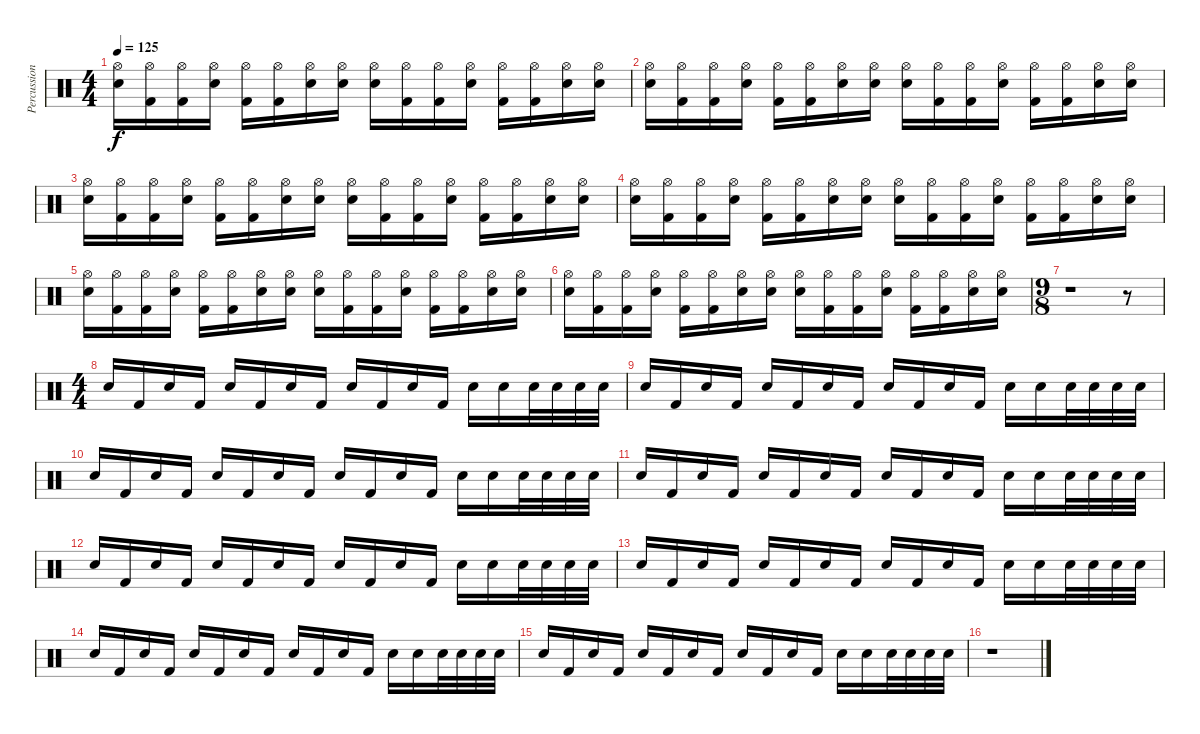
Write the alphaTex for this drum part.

\track ("Percussion" "Percussion") {instrument percussion}
\staff {score}
\articulation defaults
\ts (4 4)
\tempo 125
\clef neutral
\ks c
("Hi-Hat (open)" "Snare (hit) 2").16{dy f} ("Hi-Hat (open)" "Kick (hit) 2").16 ("Hi-Hat (open)" "Kick (hit) 2").16 ("Hi-Hat (open)" "Snare (hit) 2").16 ("Hi-Hat (open)" "Kick (hit) 2").16 ("Hi-Hat (open)" "Kick (hit) 2").16 ("Hi-Hat (open)" "Snare (hit) 2").16 ("Hi-Hat (open)" "Snare (hit) 2").16 ("Hi-Hat (open)" "Snare (hit) 2").16 ("Hi-Hat (open)" "Kick (hit) 2").16 ("Hi-Hat (open)" "Kick (hit) 2").16 ("Hi-Hat (open)" "Snare (hit) 2").16 ("Hi-Hat (open)" "Kick (hit) 2").16 ("Hi-Hat (open)" "Kick (hit) 2").16 ("Hi-Hat (open)" "Snare (hit) 2").16 ("Hi-Hat (open)" "Snare (hit) 2").16 |
("Hi-Hat (open)" "Snare (hit) 2").16 ("Hi-Hat (open)" "Kick (hit) 2").16 ("Hi-Hat (open)" "Kick (hit) 2").16 ("Hi-Hat (open)" "Snare (hit) 2").16 ("Hi-Hat (open)" "Kick (hit) 2").16 ("Hi-Hat (open)" "Kick (hit) 2").16 ("Hi-Hat (open)" "Snare (hit) 2").16 ("Hi-Hat (open)" "Snare (hit) 2").16 ("Hi-Hat (open)" "Snare (hit) 2").16 ("Hi-Hat (open)" "Kick (hit) 2").16 ("Hi-Hat (open)" "Kick (hit) 2").16 ("Hi-Hat (open)" "Snare (hit) 2").16 ("Hi-Hat (open)" "Kick (hit) 2").16 ("Hi-Hat (open)" "Kick (hit) 2").16 ("Hi-Hat (open)" "Snare (hit) 2").16 ("Hi-Hat (open)" "Snare (hit) 2").16 |
("Hi-Hat (open)" "Snare (hit) 2").16 ("Hi-Hat (open)" "Kick (hit) 2").16 ("Hi-Hat (open)" "Kick (hit) 2").16 ("Hi-Hat (open)" "Snare (hit) 2").16 ("Hi-Hat (open)" "Kick (hit) 2").16 ("Hi-Hat (open)" "Kick (hit) 2").16 ("Hi-Hat (open)" "Snare (hit) 2").16 ("Hi-Hat (open)" "Snare (hit) 2").16 ("Hi-Hat (open)" "Snare (hit) 2").16 ("Hi-Hat (open)" "Kick (hit) 2").16 ("Hi-Hat (open)" "Kick (hit) 2").16 ("Hi-Hat (open)" "Snare (hit) 2").16 ("Hi-Hat (open)" "Kick (hit) 2").16 ("Hi-Hat (open)" "Kick (hit) 2").16 ("Hi-Hat (open)" "Snare (hit) 2").16 ("Hi-Hat (open)" "Snare (hit) 2").16 |
("Hi-Hat (open)" "Snare (hit) 2").16 ("Hi-Hat (open)" "Kick (hit) 2").16 ("Hi-Hat (open)" "Kick (hit) 2").16 ("Hi-Hat (open)" "Snare (hit) 2").16 ("Hi-Hat (open)" "Kick (hit) 2").16 ("Hi-Hat (open)" "Kick (hit) 2").16 ("Hi-Hat (open)" "Snare (hit) 2").16 ("Hi-Hat (open)" "Snare (hit) 2").16 ("Hi-Hat (open)" "Snare (hit) 2").16 ("Hi-Hat (open)" "Kick (hit) 2").16 ("Hi-Hat (open)" "Kick (hit) 2").16 ("Hi-Hat (open)" "Snare (hit) 2").16 ("Hi-Hat (open)" "Kick (hit) 2").16 ("Hi-Hat (open)" "Kick (hit) 2").16 ("Hi-Hat (open)" "Snare (hit) 2").16 ("Hi-Hat (open)" "Snare (hit) 2").16 |
("Hi-Hat (open)" "Snare (hit) 2").16 ("Hi-Hat (open)" "Kick (hit) 2").16 ("Hi-Hat (open)" "Kick (hit) 2").16 ("Hi-Hat (open)" "Snare (hit) 2").16 ("Hi-Hat (open)" "Kick (hit) 2").16 ("Hi-Hat (open)" "Kick (hit) 2").16 ("Hi-Hat (open)" "Snare (hit) 2").16 ("Hi-Hat (open)" "Snare (hit) 2").16 ("Hi-Hat (open)" "Snare (hit) 2").16 ("Hi-Hat (open)" "Kick (hit) 2").16 ("Hi-Hat (open)" "Kick (hit) 2").16 ("Hi-Hat (open)" "Snare (hit) 2").16 ("Hi-Hat (open)" "Kick (hit) 2").16 ("Hi-Hat (open)" "Kick (hit) 2").16 ("Hi-Hat (open)" "Snare (hit) 2").16 ("Hi-Hat (open)" "Snare (hit) 2").16 |
("Hi-Hat (open)" "Snare (hit) 2").16 ("Hi-Hat (open)" "Kick (hit) 2").16 ("Hi-Hat (open)" "Kick (hit) 2").16 ("Hi-Hat (open)" "Snare (hit) 2").16 ("Hi-Hat (open)" "Kick (hit) 2").16 ("Hi-Hat (open)" "Kick (hit) 2").16 ("Hi-Hat (open)" "Snare (hit) 2").16 ("Hi-Hat (open)" "Snare (hit) 2").16 ("Hi-Hat (open)" "Snare (hit) 2").16 ("Hi-Hat (open)" "Kick (hit) 2").16 ("Hi-Hat (open)" "Kick (hit) 2").16 ("Hi-Hat (open)" "Snare (hit) 2").16 ("Hi-Hat (open)" "Kick (hit) 2").16 ("Hi-Hat (open)" "Kick (hit) 2").16 ("Hi-Hat (open)" "Snare (hit) 2").16 ("Hi-Hat (open)" "Snare (hit) 2").16 |
\ts (9 8)
r.1 r.8 |
\ts (4 4)
"Snare (hit) 2".16 "Kick (hit) 2".16 "Snare (hit) 2".16 "Kick (hit) 2".16 "Snare (hit) 2".16 "Kick (hit) 2".16 "Snare (hit) 2".16 "Kick (hit) 2".16 "Snare (hit) 2".16 "Kick (hit) 2".16 "Snare (hit) 2".16 "Kick (hit) 2".16 "Snare (hit) 2".16 "Snare (hit) 2".16 "Snare (hit) 2".32 "Snare (hit) 2".32 "Snare (hit) 2".32 "Snare (hit) 2".32 |
"Snare (hit) 2".16 "Kick (hit) 2".16 "Snare (hit) 2".16 "Kick (hit) 2".16 "Snare (hit) 2".16 "Kick (hit) 2".16 "Snare (hit) 2".16 "Kick (hit) 2".16 "Snare (hit) 2".16 "Kick (hit) 2".16 "Snare (hit) 2".16 "Kick (hit) 2".16 "Snare (hit) 2".16 "Snare (hit) 2".16 "Snare (hit) 2".32 "Snare (hit) 2".32 "Snare (hit) 2".32 "Snare (hit) 2".32 |
"Snare (hit) 2".16 "Kick (hit) 2".16 "Snare (hit) 2".16 "Kick (hit) 2".16 "Snare (hit) 2".16 "Kick (hit) 2".16 "Snare (hit) 2".16 "Kick (hit) 2".16 "Snare (hit) 2".16 "Kick (hit) 2".16 "Snare (hit) 2".16 "Kick (hit) 2".16 "Snare (hit) 2".16 "Snare (hit) 2".16 "Snare (hit) 2".32 "Snare (hit) 2".32 "Snare (hit) 2".32 "Snare (hit) 2".32 |
"Snare (hit) 2".16 "Kick (hit) 2".16 "Snare (hit) 2".16 "Kick (hit) 2".16 "Snare (hit) 2".16 "Kick (hit) 2".16 "Snare (hit) 2".16 "Kick (hit) 2".16 "Snare (hit) 2".16 "Kick (hit) 2".16 "Snare (hit) 2".16 "Kick (hit) 2".16 "Snare (hit) 2".16 "Snare (hit) 2".16 "Snare (hit) 2".32 "Snare (hit) 2".32 "Snare (hit) 2".32 "Snare (hit) 2".32 |
"Snare (hit) 2".16 "Kick (hit) 2".16 "Snare (hit) 2".16 "Kick (hit) 2".16 "Snare (hit) 2".16 "Kick (hit) 2".16 "Snare (hit) 2".16 "Kick (hit) 2".16 "Snare (hit) 2".16 "Kick (hit) 2".16 "Snare (hit) 2".16 "Kick (hit) 2".16 "Snare (hit) 2".16 "Snare (hit) 2".16 "Snare (hit) 2".32 "Snare (hit) 2".32 "Snare (hit) 2".32 "Snare (hit) 2".32 |
"Snare (hit) 2".16 "Kick (hit) 2".16 "Snare (hit) 2".16 "Kick (hit) 2".16 "Snare (hit) 2".16 "Kick (hit) 2".16 "Snare (hit) 2".16 "Kick (hit) 2".16 "Snare (hit) 2".16 "Kick (hit) 2".16 "Snare (hit) 2".16 "Kick (hit) 2".16 "Snare (hit) 2".16 "Snare (hit) 2".16 "Snare (hit) 2".32 "Snare (hit) 2".32 "Snare (hit) 2".32 "Snare (hit) 2".32 |
"Snare (hit) 2".16 "Kick (hit) 2".16 "Snare (hit) 2".16 "Kick (hit) 2".16 "Snare (hit) 2".16 "Kick (hit) 2".16 "Snare (hit) 2".16 "Kick (hit) 2".16 "Snare (hit) 2".16 "Kick (hit) 2".16 "Snare (hit) 2".16 "Kick (hit) 2".16 "Snare (hit) 2".16 "Snare (hit) 2".16 "Snare (hit) 2".32 "Snare (hit) 2".32 "Snare (hit) 2".32 "Snare (hit) 2".32 |
"Snare (hit) 2".16 "Kick (hit) 2".16 "Snare (hit) 2".16 "Kick (hit) 2".16 "Snare (hit) 2".16 "Kick (hit) 2".16 "Snare (hit) 2".16 "Kick (hit) 2".16 "Snare (hit) 2".16 "Kick (hit) 2".16 "Snare (hit) 2".16 "Kick (hit) 2".16 "Snare (hit) 2".16 "Snare (hit) 2".16 "Snare (hit) 2".32 "Snare (hit) 2".32 "Snare (hit) 2".32 "Snare (hit) 2".32 |
r.1
